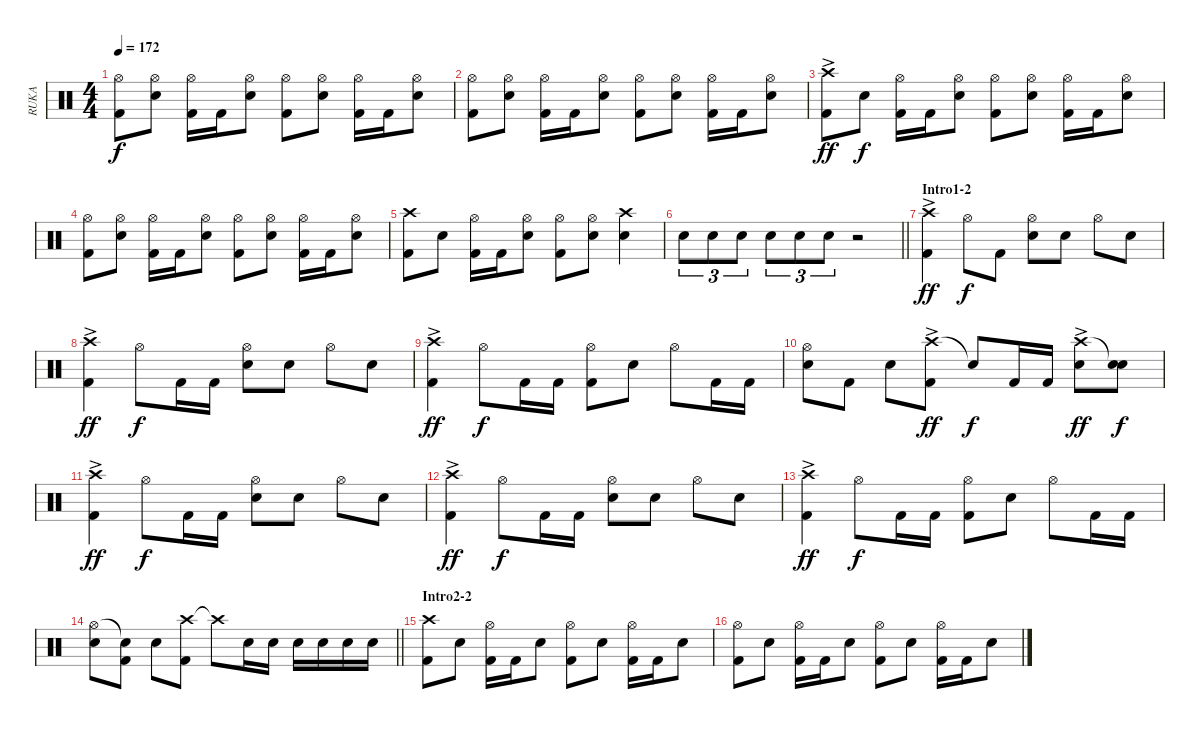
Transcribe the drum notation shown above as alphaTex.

\track ("RUKA" "RUKA") {instrument percussion}
\staff {score}
\articulation defaults
\ts (4 4)
\tempo 172
\clef neutral
\ks c
("Hi-Hat (open)" "Kick (hit) 2").8{dy f} ("Hi-Hat (open)" "Snare (hit) 2").8 ("Hi-Hat (open)" "Kick (hit) 2").16 "Kick (hit) 2".16 ("Hi-Hat (open)" "Snare (hit) 2").8 ("Hi-Hat (open)" "Kick (hit) 2").8 ("Hi-Hat (open)" "Snare (hit) 2").8 ("Hi-Hat (open)" "Kick (hit) 2").16 "Kick (hit) 2".16 ("Hi-Hat (open)" "Snare (hit) 2").8 |
("Hi-Hat (open)" "Kick (hit) 2").8 ("Hi-Hat (open)" "Snare (hit) 2").8 ("Hi-Hat (open)" "Kick (hit) 2").16 "Kick (hit) 2".16 ("Hi-Hat (open)" "Snare (hit) 2").8 ("Hi-Hat (open)" "Kick (hit) 2").8 ("Hi-Hat (open)" "Snare (hit) 2").8 ("Hi-Hat (open)" "Kick (hit) 2").16 "Kick (hit) 2".16 ("Hi-Hat (open)" "Snare (hit) 2").8 |
("Crash high (hit)"{ac} "Kick (hit) 2").8{dy ff} "Snare (hit) 2".8{dy f} ("Hi-Hat (open)" "Kick (hit) 2").16 "Kick (hit) 2".16 ("Hi-Hat (open)" "Snare (hit) 2").8 ("Hi-Hat (open)" "Kick (hit) 2").8 ("Hi-Hat (open)" "Snare (hit) 2").8 ("Hi-Hat (open)" "Kick (hit) 2").16 "Kick (hit) 2".16 ("Hi-Hat (open)" "Snare (hit) 2").8 |
("Hi-Hat (open)" "Kick (hit) 2").8 ("Hi-Hat (open)" "Snare (hit) 2").8 ("Hi-Hat (open)" "Kick (hit) 2").16 "Kick (hit) 2".16 ("Hi-Hat (open)" "Snare (hit) 2").8 ("Hi-Hat (open)" "Kick (hit) 2").8 ("Hi-Hat (open)" "Snare (hit) 2").8 ("Hi-Hat (open)" "Kick (hit) 2").16 "Kick (hit) 2".16 ("Hi-Hat (open)" "Snare (hit) 2").8 |
("Crash high (hit)" "Kick (hit) 2").8 "Snare (hit) 2".8 ("Hi-Hat (open)" "Kick (hit) 2").16 "Kick (hit) 2".16 ("Hi-Hat (open)" "Snare (hit) 2").8 ("Hi-Hat (open)" "Kick (hit) 2").8 ("Hi-Hat (open)" "Snare (hit) 2").8 ("Crash high (hit)" "Snare (hit) 2").4 |
\barLineRight lightlight "Snare (hit) 2".8{tu (3 2)} "Snare (hit) 2".8{tu (3 2)} "Snare (hit) 2".8{tu (3 2)} "Snare (hit) 2".8{tu (3 2)} "Snare (hit) 2".8{tu (3 2)} "Snare (hit) 2".8{tu (3 2)}
r.2 |
\section ("" "Intro1-2")
("Crash high (hit)"{ac} "Kick (hit) 2").4{dy ff} "Hi-Hat (open)".8{dy f} "Kick (hit) 2".8 ("Hi-Hat (open)" "Snare (hit) 2").8 "Snare (hit) 2".8 "Hi-Hat (open)".8 "Snare (hit) 2".8 |
("Crash high (hit)"{ac} "Kick (hit) 2").4{dy ff} "Hi-Hat (open)".8{dy f} "Kick (hit) 2".16 "Kick (hit) 2".16 ("Hi-Hat (open)" "Snare (hit) 2").8 "Snare (hit) 2".8 "Hi-Hat (open)".8 "Snare (hit) 2".8 |
("Crash high (hit)"{ac} "Kick (hit) 2").4{dy ff} "Hi-Hat (open)".8{dy f} "Kick (hit) 2".16 "Kick (hit) 2".16 ("Hi-Hat (open)" "Kick (hit) 2").8 "Snare (hit) 2".8 "Hi-Hat (open)".8 "Kick (hit) 2".16 "Kick (hit) 2".16 |
("Hi-Hat (open)" "Snare (hit) 2").8 "Kick (hit) 2".8 "Snare (hit) 2".8 ("Crash high (hit)"{ac} "Kick (hit) 2").8{dy ff} "Snare (hit)"{t}.8{dy f} "Kick (hit) 2".16 "Kick (hit) 2".16 ("Crash high (hit)"{ac} "Snare (hit) 2").8{dy ff} ("Snare (hit)"{t} "Snare (hit) 2").8{dy f} |
("Crash high (hit)"{ac} "Kick (hit) 2").4{dy ff} "Hi-Hat (open)".8{dy f} "Kick (hit) 2".16 "Kick (hit) 2".16 ("Hi-Hat (open)" "Snare (hit) 2").8 "Snare (hit) 2".8 "Hi-Hat (open)".8 "Snare (hit) 2".8 |
("Crash high (hit)"{ac} "Kick (hit) 2").4{dy ff} "Hi-Hat (open)".8{dy f} "Kick (hit) 2".16 "Kick (hit) 2".16 ("Hi-Hat (open)" "Snare (hit) 2").8 "Snare (hit) 2".8 "Hi-Hat (open)".8 "Snare (hit) 2".8 |
("Crash high (hit)"{ac} "Kick (hit) 2").4{dy ff} "Hi-Hat (open)".8{dy f} "Kick (hit) 2".16 "Kick (hit) 2".16 ("Hi-Hat (open)" "Kick (hit) 2").8 "Snare (hit) 2".8 "Hi-Hat (open)".8 "Kick (hit) 2".16 "Kick (hit) 2".16 |
\barLineRight lightlight
("Hi-Hat (open)" "Snare (hit) 2").8 ("Snare (hit)"{t} "Kick (hit) 2").8 "Snare (hit) 2".8 ("Crash high (hit)" "Kick (hit) 2").8 "Crash high (hit)"{t}.8 "Snare (hit) 2".16 "Snare (hit) 2".16 "Snare (hit) 2".16 "Snare (hit) 2".16 "Snare (hit) 2".16 "Snare (hit) 2".16 |
\section ("" "Intro2-2")
("Crash high (hit)" "Kick (hit) 2").8 "Snare (hit) 2".8 ("Hi-Hat (open)" "Kick (hit) 2").16 "Kick (hit) 2".16 "Snare (hit) 2".8 ("Hi-Hat (open)" "Kick (hit) 2").8 "Snare (hit) 2".8 ("Hi-Hat (open)" "Kick (hit) 2").16 "Kick (hit) 2".16 "Snare (hit) 2".8 |
("Hi-Hat (open)" "Kick (hit) 2").8 "Snare (hit) 2".8 ("Hi-Hat (open)" "Kick (hit) 2").16 "Kick (hit) 2".16 "Snare (hit) 2".8 ("Hi-Hat (open)" "Kick (hit) 2").8 "Snare (hit) 2".8 ("Hi-Hat (open)" "Kick (hit) 2").16 "Kick (hit) 2".16 "Snare (hit) 2".8
